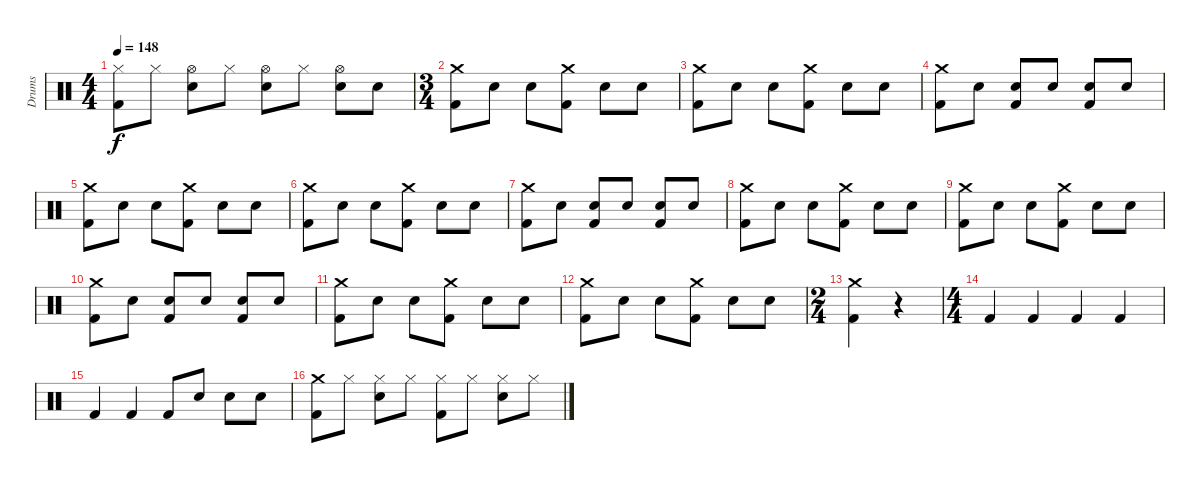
\track ("Drums" "Drums") {instrument percussion}
\staff {score}
\articulation defaults
\ts (4 4)
\tempo 148
\clef neutral
\ks c
("Kick (hit) 2" "Hi-Hat (closed)").8{dy f} "Hi-Hat (closed)".8 ("Snare (hit) 2" "Hi-Hat (open)").8 "Hi-Hat (closed)".8 ("Snare (hit) 2" "Hi-Hat (open)").8 "Hi-Hat (closed)".8 ("Snare (hit) 2" "Hi-Hat (open)").8 "Snare (hit) 2".8 |
\ts (3 4)
("Kick (hit) 2" "Crash medium (hit)").8 "Snare (hit) 2".8 "Snare (hit) 2".8 ("Kick (hit) 2" "Crash medium (hit)").8 "Snare (hit) 2".8 "Snare (hit) 2".8 |
("Kick (hit) 2" "Crash medium (hit)").8 "Snare (hit) 2".8 "Snare (hit) 2".8 ("Kick (hit) 2" "Crash medium (hit)").8 "Snare (hit) 2".8 "Snare (hit) 2".8 |
("Kick (hit) 2" "Crash medium (hit)").8 "Snare (hit) 2".8 ("Snare (hit) 2" "Kick (hit) 2").8 "Snare (hit) 2".8 ("Snare (hit) 2" "Kick (hit) 2").8 "Snare (hit) 2".8 |
("Kick (hit) 2" "Crash medium (hit)").8 "Snare (hit) 2".8 "Snare (hit) 2".8 ("Kick (hit) 2" "Crash medium (hit)").8 "Snare (hit) 2".8 "Snare (hit) 2".8 |
("Kick (hit) 2" "Crash medium (hit)").8 "Snare (hit) 2".8 "Snare (hit) 2".8 ("Kick (hit) 2" "Crash medium (hit)").8 "Snare (hit) 2".8 "Snare (hit) 2".8 |
("Kick (hit) 2" "Crash medium (hit)").8 "Snare (hit) 2".8 ("Snare (hit) 2" "Kick (hit) 2").8 "Snare (hit) 2".8 ("Snare (hit) 2" "Kick (hit) 2").8 "Snare (hit) 2".8 |
("Kick (hit) 2" "Crash medium (hit)").8 "Snare (hit) 2".8 "Snare (hit) 2".8 ("Kick (hit) 2" "Crash medium (hit)").8 "Snare (hit) 2".8 "Snare (hit) 2".8 |
("Kick (hit) 2" "Crash medium (hit)").8 "Snare (hit) 2".8 "Snare (hit) 2".8 ("Kick (hit) 2" "Crash medium (hit)").8 "Snare (hit) 2".8 "Snare (hit) 2".8 |
("Kick (hit) 2" "Crash medium (hit)").8 "Snare (hit) 2".8 ("Snare (hit) 2" "Kick (hit) 2").8 "Snare (hit) 2".8 ("Snare (hit) 2" "Kick (hit) 2").8 "Snare (hit) 2".8 |
("Kick (hit) 2" "Crash medium (hit)").8 "Snare (hit) 2".8 "Snare (hit) 2".8 ("Kick (hit) 2" "Crash medium (hit)").8 "Snare (hit) 2".8 "Snare (hit) 2".8 |
("Kick (hit) 2" "Crash medium (hit)").8 "Snare (hit) 2".8 "Snare (hit) 2".8 ("Kick (hit) 2" "Crash medium (hit)").8 "Snare (hit) 2".8 "Snare (hit) 2".8 |
\ts (2 4)
("Kick (hit) 2" "Crash medium (hit)").4 r.4 |
\ts (4 4)
"Kick (hit) 2".4 "Kick (hit) 2".4 "Kick (hit) 2".4 "Kick (hit) 2".4 |
"Kick (hit) 2".4 "Kick (hit) 2".4 "Kick (hit) 2".8 "Snare (hit) 2".8 "Snare (hit) 2".8 "Snare (hit) 2".8 |
("Kick (hit) 2" "Crash medium (hit)").8 "Hi-Hat (closed)".8 ("Snare (hit) 2" "Hi-Hat (closed)").8 "Hi-Hat (closed)".8 ("Kick (hit) 2" "Hi-Hat (closed)").8 "Hi-Hat (closed)".8 ("Snare (hit) 2" "Hi-Hat (closed)").8 "Hi-Hat (closed)".8
